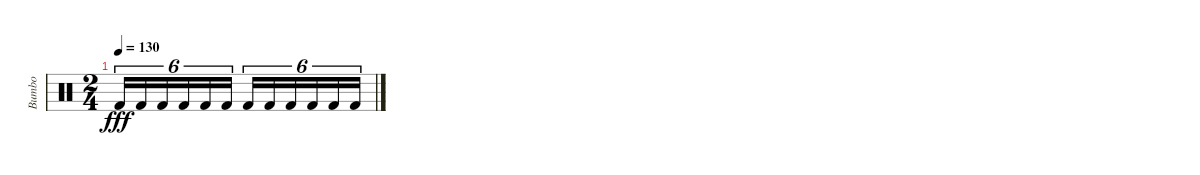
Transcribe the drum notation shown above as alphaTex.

\track ("Bumbo" "Bumbo") {instrument percussion}
\staff {score}
\articulation defaults
\ts (2 4)
\tempo 130
\clef neutral
\ks c "Kick (hit) 2".16{tu (6 4) dy fff} "Kick (hit) 2".16{tu (6 4)} "Kick (hit) 2".16{tu (6 4)} "Kick (hit) 2".16{tu (6 4)} "Kick (hit) 2".16{tu (6 4)} "Kick (hit) 2".16{tu (6 4)} "Kick (hit) 2".16{tu (6 4)} "Kick (hit) 2".16{tu (6 4)} "Kick (hit) 2".16{tu (6 4)} "Kick (hit) 2".16{tu (6 4)} "Kick (hit) 2".16{tu (6 4)} "Kick (hit) 2".16{tu (6 4)}
